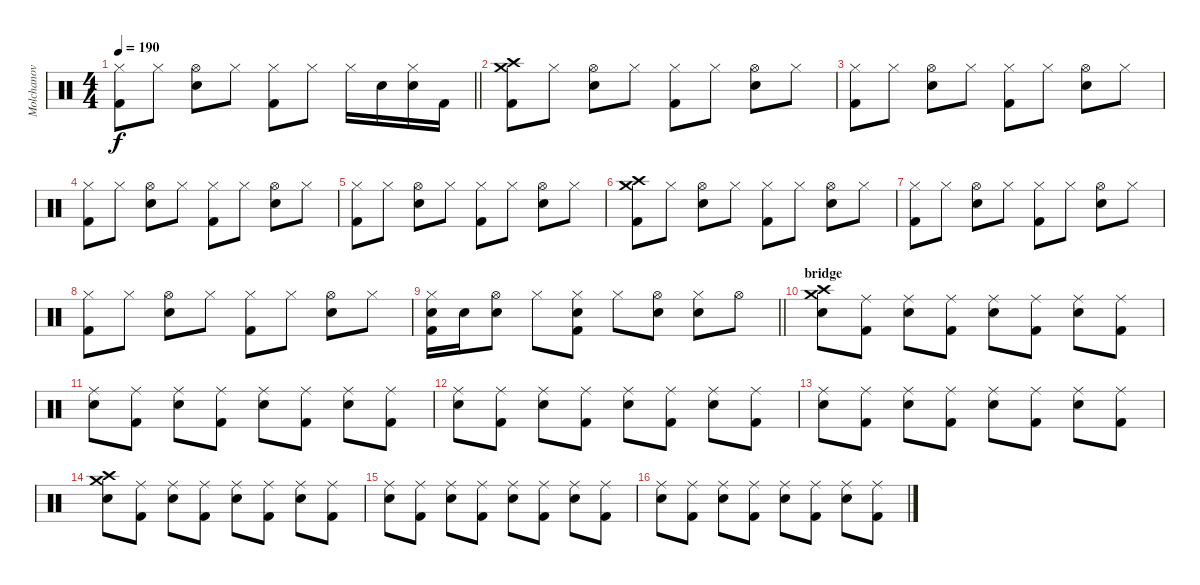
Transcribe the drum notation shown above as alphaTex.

\track ("Molchanov" "Molchanov") {instrument percussion}
\staff {score}
\articulation defaults
\ts (4 4)
\tempo 190
\clef neutral
\barLineRight lightlight
\ks c
("Hi-Hat (closed)" "Kick (hit) 2").8{dy f} "Hi-Hat (closed)".8 ("Hi-Hat (open)" "Snare (hit) 2").8 "Hi-Hat (closed)".8 ("Hi-Hat (closed)" "Kick (hit) 2").8 "Hi-Hat (closed)".8 "Hi-Hat (closed)".16 "Snare (hit) 2".16 ("Hi-Hat (closed)" "Snare (hit) 2").16 "Kick (hit) 2".16 |
("Crash high (hit)" "Crash medium (hit)" "Kick (hit) 2").8 "Hi-Hat (closed)".8 ("Hi-Hat (open)" "Snare (hit) 2").8 "Hi-Hat (closed)".8 ("Hi-Hat (closed)" "Kick (hit) 2").8 "Hi-Hat (closed)".8 ("Hi-Hat (open)" "Snare (hit) 2").8 "Hi-Hat (closed)".8 |
("Hi-Hat (closed)" "Kick (hit) 2").8 "Hi-Hat (closed)".8 ("Hi-Hat (open)" "Snare (hit) 2").8 "Hi-Hat (closed)".8 ("Hi-Hat (closed)" "Kick (hit) 2").8 "Hi-Hat (closed)".8 ("Hi-Hat (open)" "Snare (hit) 2").8 "Hi-Hat (closed)".8 |
("Hi-Hat (closed)" "Kick (hit) 2").8 "Hi-Hat (closed)".8 ("Hi-Hat (open)" "Snare (hit) 2").8 "Hi-Hat (closed)".8 ("Hi-Hat (closed)" "Kick (hit) 2").8 "Hi-Hat (closed)".8 ("Hi-Hat (open)" "Snare (hit) 2").8 "Hi-Hat (closed)".8 |
("Hi-Hat (closed)" "Kick (hit) 2").8 "Hi-Hat (closed)".8 ("Hi-Hat (open)" "Snare (hit) 2").8 "Hi-Hat (closed)".8 ("Hi-Hat (closed)" "Kick (hit) 2").8 "Hi-Hat (closed)".8 ("Hi-Hat (open)" "Snare (hit) 2").8 "Hi-Hat (closed)".8 |
("Crash high (hit)" "Crash medium (hit)" "Kick (hit) 2").8 "Hi-Hat (closed)".8 ("Hi-Hat (open)" "Snare (hit) 2").8 "Hi-Hat (closed)".8 ("Hi-Hat (closed)" "Kick (hit) 2").8 "Hi-Hat (closed)".8 ("Hi-Hat (open)" "Snare (hit) 2").8 "Hi-Hat (closed)".8 |
("Hi-Hat (closed)" "Kick (hit) 2").8 "Hi-Hat (closed)".8 ("Hi-Hat (open)" "Snare (hit) 2").8 "Hi-Hat (closed)".8 ("Hi-Hat (closed)" "Kick (hit) 2").8 "Hi-Hat (closed)".8 ("Hi-Hat (open)" "Snare (hit) 2").8 "Hi-Hat (closed)".8 |
("Hi-Hat (closed)" "Kick (hit) 2").8 "Hi-Hat (closed)".8 ("Hi-Hat (open)" "Snare (hit) 2").8 "Hi-Hat (closed)".8 ("Hi-Hat (closed)" "Kick (hit) 2").8 "Hi-Hat (closed)".8 ("Hi-Hat (open)" "Snare (hit) 2").8 "Hi-Hat (closed)".8 |
\barLineRight lightlight
("Hi-Hat (closed)" "Snare (hit) 2" "Kick (hit) 2").16 "Snare (hit) 2".16 ("Hi-Hat (open)" "Snare (hit) 2").8 "Hi-Hat (closed)".8 ("Hi-Hat (closed)" "Snare (hit) 2" "Kick (hit) 2").8 "Hi-Hat (closed)".8 ("Hi-Hat (open)" "Snare (hit) 2").8 ("Hi-Hat (closed)" "Snare (hit) 2").8 "Hi-Hat (open)".8 |
\section ("" "bridge")
("Crash high (hit)" "Snare (hit) 2" "Crash medium (hit)").8 ("Ride (middle)" "Kick (hit) 2").8 ("Ride (middle)" "Snare (hit) 2").8 ("Ride (middle)" "Kick (hit) 2").8 ("Ride (middle)" "Snare (hit) 2").8 ("Ride (middle)" "Kick (hit) 2").8 ("Ride (middle)" "Snare (hit) 2").8 ("Ride (middle)" "Kick (hit) 2").8 |
("Ride (middle)" "Snare (hit) 2").8 ("Ride (middle)" "Kick (hit) 2").8 ("Ride (middle)" "Snare (hit) 2").8 ("Ride (middle)" "Kick (hit) 2").8 ("Ride (middle)" "Snare (hit) 2").8 ("Ride (middle)" "Kick (hit) 2").8 ("Ride (middle)" "Snare (hit) 2").8 ("Ride (middle)" "Kick (hit) 2").8 |
("Ride (middle)" "Snare (hit) 2").8 ("Ride (middle)" "Kick (hit) 2").8 ("Ride (middle)" "Snare (hit) 2").8 ("Ride (middle)" "Kick (hit) 2").8 ("Ride (middle)" "Snare (hit) 2").8 ("Ride (middle)" "Kick (hit) 2").8 ("Ride (middle)" "Snare (hit) 2").8 ("Ride (middle)" "Kick (hit) 2").8 |
("Ride (middle)" "Snare (hit) 2").8 ("Ride (middle)" "Kick (hit) 2").8 ("Ride (middle)" "Snare (hit) 2").8 ("Ride (middle)" "Kick (hit) 2").8 ("Ride (middle)" "Snare (hit) 2").8 ("Ride (middle)" "Kick (hit) 2").8 ("Ride (middle)" "Snare (hit) 2").8 ("Ride (middle)" "Kick (hit) 2").8 |
("Crash high (hit)" "Snare (hit) 2" "Crash medium (hit)").8 ("Ride (middle)" "Kick (hit) 2").8 ("Ride (middle)" "Snare (hit) 2").8 ("Ride (middle)" "Kick (hit) 2").8 ("Ride (middle)" "Snare (hit) 2").8 ("Ride (middle)" "Kick (hit) 2").8 ("Ride (middle)" "Snare (hit) 2").8 ("Ride (middle)" "Kick (hit) 2").8 |
("Ride (middle)" "Snare (hit) 2").8 ("Ride (middle)" "Kick (hit) 2").8 ("Ride (middle)" "Snare (hit) 2").8 ("Ride (middle)" "Kick (hit) 2").8 ("Ride (middle)" "Snare (hit) 2").8 ("Ride (middle)" "Kick (hit) 2").8 ("Ride (middle)" "Snare (hit) 2").8 ("Ride (middle)" "Kick (hit) 2").8 |
("Ride (middle)" "Snare (hit) 2").8 ("Ride (middle)" "Kick (hit) 2").8 ("Ride (middle)" "Snare (hit) 2").8 ("Ride (middle)" "Kick (hit) 2").8 ("Ride (middle)" "Snare (hit) 2").8 ("Ride (middle)" "Kick (hit) 2").8 ("Ride (middle)" "Snare (hit) 2").8 ("Ride (middle)" "Kick (hit) 2").8
